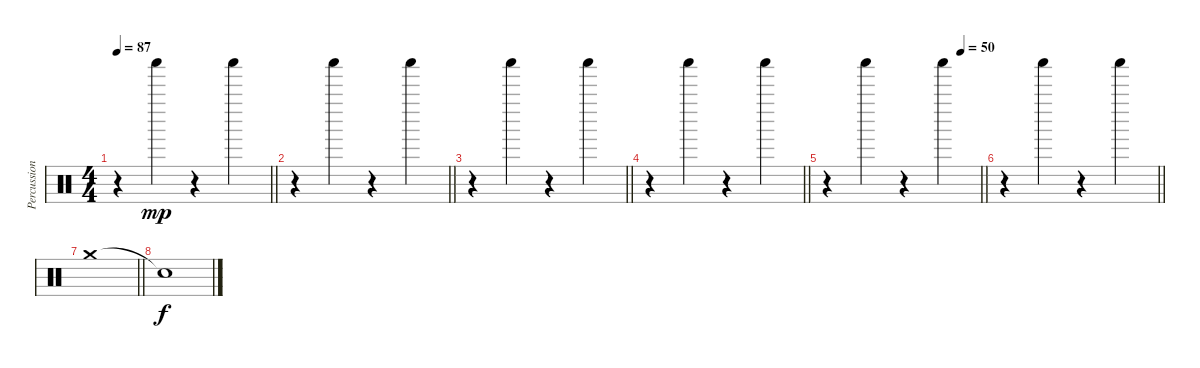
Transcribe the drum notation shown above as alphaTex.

\track ("Percussion" "Percussion") {instrument percussion}
\staff {score}
\articulation defaults
\ts (4 4)
\tempo 87
\clef neutral
\barLineRight lightlight
\ks c
r.4{dy mp} "Shaker (hit)".4 r.4 "Shaker (hit)".4 |
\barLineRight lightlight
r.4 "Shaker (hit)".4 r.4 "Shaker (hit)".4 |
\barLineRight lightlight
r.4 "Shaker (hit)".4 r.4 "Shaker (hit)".4 |
\barLineRight lightlight
r.4 "Shaker (hit)".4 r.4 "Shaker (hit)".4 |
\tempo (50 0.875)
\barLineRight lightlight
r.4 "Shaker (hit)".4 r.4 "Shaker (hit)".4 |
\barLineRight lightlight
r.4 "Shaker (hit)".4 r.4 "Shaker (hit)".4 |
\barLineRight lightlight "Crash medium (hit)".1
|
"Snare (hit)"{t}.1{dy f}
